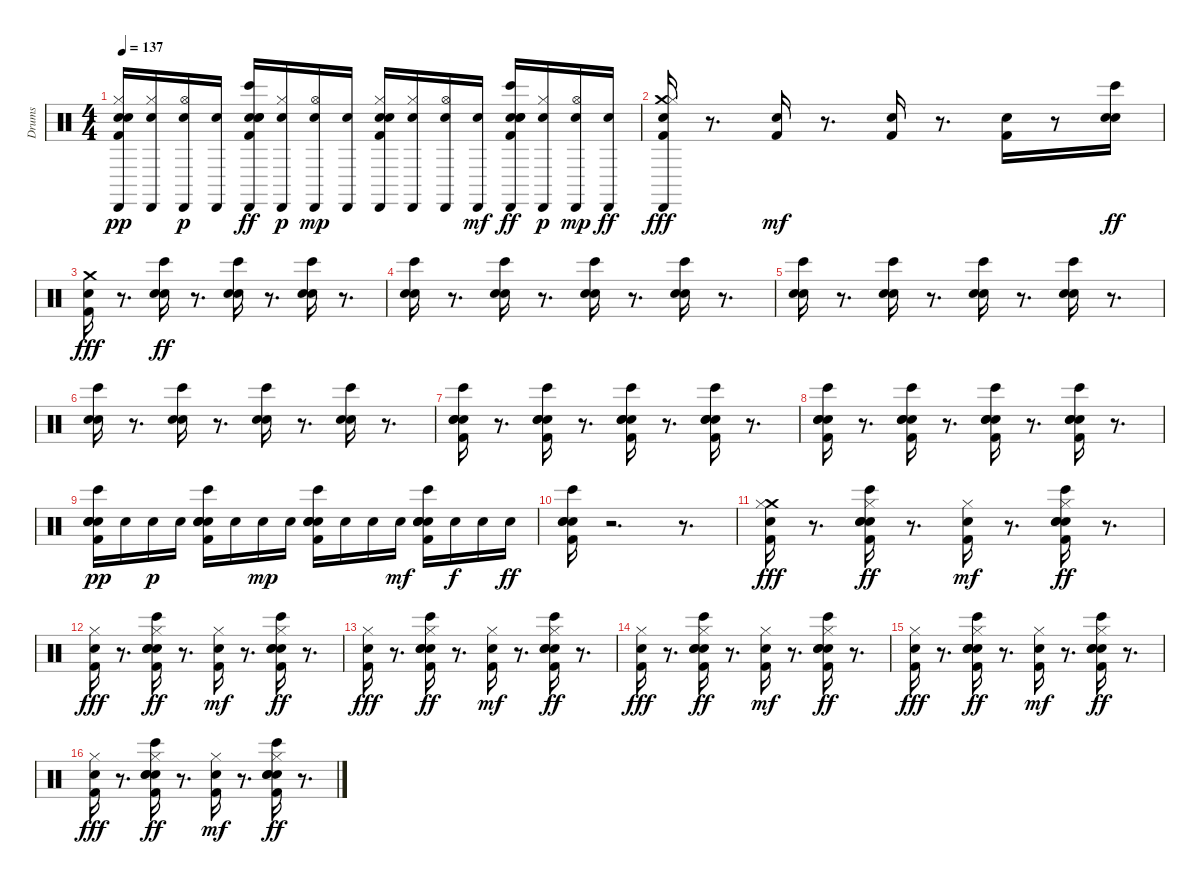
\track ("Drums" "Drums") {instrument percussion}
\staff {score}
\articulation defaults
\ts (4 4)
\tempo 137
\clef neutral
\ks c
("Cabasa (hit)" "Kick (hit) 2" "Snare (hit)" "Hi-Hat (closed)" "Electric Snare (hit)").16{dy pp} ("Cabasa (hit)" "Hi-Hat (closed)" "Electric Snare (hit)").16 ("Cabasa (hit)" "Hi-Hat (open)" "Electric Snare (hit)").16{dy p} ("Cabasa (hit)" "Electric Snare (hit)").16 ("Cabasa (hit)" "Snare (hit)" "Kick (hit) 2" "Hand Clap (hit)" "Snare (hit) 2" "Bongo High (hit)").16{dy ff} ("Cabasa (hit)" "Hi-Hat (closed)" "Electric Snare (hit)").16{dy p} ("Cabasa (hit)" "Hi-Hat (open)" "Electric Snare (hit)").16{dy mp} ("Cabasa (hit)" "Electric Snare (hit)").16 ("Cabasa (hit)" "Snare (hit)" "Kick (hit) 2" "Hi-Hat (closed)" "Electric Snare (hit)").16 ("Cabasa (hit)" "Hi-Hat (closed)" "Electric Snare (hit)").16 ("Cabasa (hit)" "Hi-Hat (open)" "Electric Snare (hit)").16 ("Cabasa (hit)" "Electric Snare (hit)").16{dy mf} ("Cabasa (hit)" "Snare (hit)" "Kick (hit) 2" "Hand Clap (hit)" "Snare (hit) 2" "Bongo High (hit)").16{dy ff} ("Cabasa (hit)" "Hi-Hat (closed)" "Electric Snare (hit)").16{dy p} ("Cabasa (hit)" "Hi-Hat (open)" "Electric Snare (hit)").16{dy mp} ("Cabasa (hit)" "Electric Snare (hit)").16{dy ff} |
("Crash medium (hit)" "Cabasa (hit)" "Kick (hit) 2" "Snare (hit)" "Hi-Hat (closed)").16{dy fff} r.8{d} ("Snare (hit)" "Kick (hit) 2").16{dy mf} r.8{d} ("Snare (hit)" "Kick (hit) 2").16 r.8{d} ("Snare (hit)" "Kick (hit) 2").16 r.8 ("Hand Clap (hit)" "Snare (hit) 2" "Bongo High (hit)").16{dy ff} |
("Crash medium (hit)" "Kick (hit) 2" "Snare (hit)").16{dy fff} r.8{d} ("Bongo High (hit)" "Snare (hit) 2" "Hand Clap (hit)").16{dy ff} r.8{d} ("Hand Clap (hit)" "Snare (hit) 2" "Bongo High (hit)").16 r.8{d} ("Bongo High (hit)" "Snare (hit) 2" "Hand Clap (hit)").16 r.8{d} |
("Hand Clap (hit)" "Snare (hit) 2" "Bongo High (hit)").16 r.8{d} ("Bongo High (hit)" "Snare (hit) 2" "Hand Clap (hit)").16 r.8{d} ("Hand Clap (hit)" "Snare (hit) 2" "Bongo High (hit)").16 r.8{d} ("Bongo High (hit)" "Snare (hit) 2" "Hand Clap (hit)").16 r.8{d} |
("Hand Clap (hit)" "Snare (hit) 2" "Bongo High (hit)").16 r.8{d} ("Bongo High (hit)" "Snare (hit) 2" "Hand Clap (hit)").16 r.8{d} ("Hand Clap (hit)" "Snare (hit) 2" "Bongo High (hit)").16 r.8{d} ("Bongo High (hit)" "Snare (hit) 2" "Hand Clap (hit)").16 r.8{d} |
("Hand Clap (hit)" "Snare (hit) 2" "Bongo High (hit)").16 r.8{d} ("Bongo High (hit)" "Snare (hit) 2" "Hand Clap (hit)").16 r.8{d} ("Hand Clap (hit)" "Snare (hit) 2" "Bongo High (hit)").16 r.8{d} ("Bongo High (hit)" "Snare (hit) 2" "Hand Clap (hit)").16 r.8{d} |
("Kick (hit) 2" "Snare (hit)" "Hand Clap (hit)" "Snare (hit) 2" "Bongo High (hit)").16 r.8{d} ("Snare (hit)" "Kick (hit) 2" "Bongo High (hit)" "Snare (hit) 2" "Hand Clap (hit)").16 r.8{d} ("Snare (hit)" "Kick (hit) 2" "Hand Clap (hit)" "Snare (hit) 2" "Bongo High (hit)").16 r.8{d} ("Snare (hit)" "Kick (hit) 2" "Bongo High (hit)" "Snare (hit) 2" "Hand Clap (hit)").16 r.8{d} |
("Kick (hit) 2" "Snare (hit)" "Hand Clap (hit)" "Snare (hit) 2" "Bongo High (hit)").16 r.8{d} ("Snare (hit)" "Kick (hit) 2" "Bongo High (hit)" "Snare (hit) 2" "Hand Clap (hit)").16 r.8{d} ("Snare (hit)" "Kick (hit) 2" "Hand Clap (hit)" "Snare (hit) 2" "Bongo High (hit)").16 r.8{d} ("Snare (hit)" "Kick (hit) 2" "Bongo High (hit)" "Snare (hit) 2" "Hand Clap (hit)").16 r.8{d} |
("Kick (hit) 2" "Snare (hit)" "Hand Clap (hit)" "Snare (hit) 2" "Bongo High (hit)" "Electric Snare (hit)").16{dy pp} "Electric Snare (hit)".16 "Electric Snare (hit)".16{dy p} "Electric Snare (hit)".16 ("Snare (hit)" "Kick (hit) 2" "Bongo High (hit)" "Snare (hit) 2" "Hand Clap (hit)" "Electric Snare (hit)").16 "Electric Snare (hit)".16 "Electric Snare (hit)".16{dy mp} "Electric Snare (hit)".16 ("Snare (hit)" "Kick (hit) 2" "Hand Clap (hit)" "Snare (hit) 2" "Bongo High (hit)" "Electric Snare (hit)").16 "Electric Snare (hit)".16 "Electric Snare (hit)".16 "Electric Snare (hit)".16{dy mf} ("Snare (hit)" "Kick (hit) 2" "Bongo High (hit)" "Snare (hit) 2" "Hand Clap (hit)" "Electric Snare (hit)").16 "Electric Snare (hit)".16{dy f} "Electric Snare (hit)".16 "Electric Snare (hit)".16{dy ff} |
("Kick (hit) 2" "Snare (hit)" "Hand Clap (hit)" "Snare (hit) 2" "Bongo High (hit)").16 r.2{d} r.8{d} |
("Crash medium (hit)" "Kick (hit) 2" "Snare (hit)" "Hi-Hat (closed)").16{dy fff} r.8{d} ("Snare (hit)" "Kick (hit) 2" "Bongo High (hit)" "Snare (hit) 2" "Hand Clap (hit)" "Hi-Hat (closed)").16{dy ff} r.8{d} ("Snare (hit)" "Kick (hit) 2" "Hi-Hat (closed)").16{dy mf} r.8{d} ("Snare (hit)" "Kick (hit) 2" "Bongo High (hit)" "Snare (hit) 2" "Hand Clap (hit)" "Hi-Hat (closed)").16{dy ff} r.8{d} |
("Kick (hit) 2" "Snare (hit)" "Hi-Hat (closed)").16{dy fff} r.8{d} ("Snare (hit)" "Kick (hit) 2" "Bongo High (hit)" "Snare (hit) 2" "Hand Clap (hit)" "Hi-Hat (closed)").16{dy ff} r.8{d} ("Snare (hit)" "Kick (hit) 2" "Hi-Hat (closed)").16{dy mf} r.8{d} ("Snare (hit)" "Kick (hit) 2" "Bongo High (hit)" "Snare (hit) 2" "Hand Clap (hit)" "Hi-Hat (closed)").16{dy ff} r.8{d} |
("Kick (hit) 2" "Snare (hit)" "Hi-Hat (closed)").16{dy fff} r.8{d} ("Snare (hit)" "Kick (hit) 2" "Bongo High (hit)" "Snare (hit) 2" "Hand Clap (hit)" "Hi-Hat (closed)").16{dy ff} r.8{d} ("Snare (hit)" "Kick (hit) 2" "Hi-Hat (closed)").16{dy mf} r.8{d} ("Snare (hit)" "Kick (hit) 2" "Bongo High (hit)" "Snare (hit) 2" "Hand Clap (hit)" "Hi-Hat (closed)").16{dy ff} r.8{d} |
("Kick (hit) 2" "Snare (hit)" "Hi-Hat (closed)").16{dy fff} r.8{d} ("Snare (hit)" "Kick (hit) 2" "Bongo High (hit)" "Snare (hit) 2" "Hand Clap (hit)" "Hi-Hat (closed)").16{dy ff} r.8{d} ("Snare (hit)" "Kick (hit) 2" "Hi-Hat (closed)").16{dy mf} r.8{d} ("Snare (hit)" "Kick (hit) 2" "Bongo High (hit)" "Snare (hit) 2" "Hand Clap (hit)" "Hi-Hat (closed)").16{dy ff} r.8{d} |
("Kick (hit) 2" "Snare (hit)" "Hi-Hat (closed)").16{dy fff} r.8{d} ("Snare (hit)" "Kick (hit) 2" "Bongo High (hit)" "Snare (hit) 2" "Hand Clap (hit)" "Hi-Hat (closed)").16{dy ff} r.8{d} ("Snare (hit)" "Kick (hit) 2" "Hi-Hat (closed)").16{dy mf} r.8{d} ("Snare (hit)" "Kick (hit) 2" "Bongo High (hit)" "Snare (hit) 2" "Hand Clap (hit)" "Hi-Hat (closed)").16{dy ff} r.8{d} |
("Kick (hit) 2" "Snare (hit)" "Hi-Hat (closed)").16{dy fff} r.8{d} ("Snare (hit)" "Kick (hit) 2" "Bongo High (hit)" "Snare (hit) 2" "Hand Clap (hit)" "Hi-Hat (closed)").16{dy ff} r.8{d} ("Snare (hit)" "Kick (hit) 2" "Hi-Hat (closed)").16{dy mf} r.8{d} ("Snare (hit)" "Kick (hit) 2" "Bongo High (hit)" "Snare (hit) 2" "Hand Clap (hit)" "Hi-Hat (closed)").16{dy ff} r.8{d}
